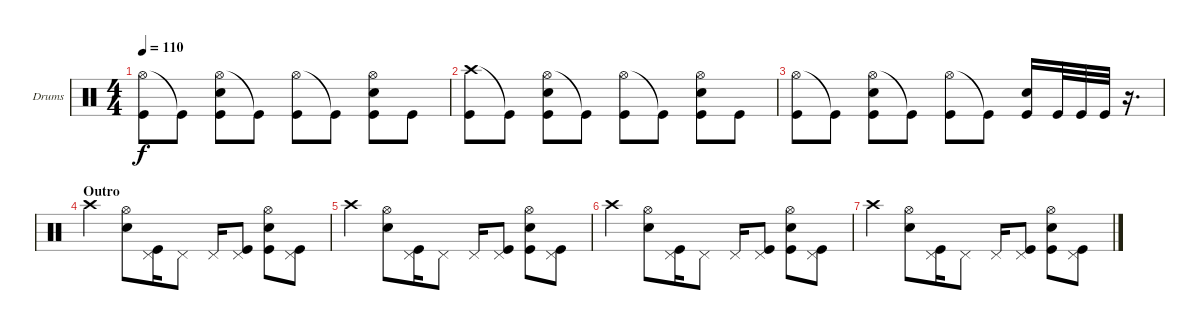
\bracketExtendMode groupsimilarinstruments
\firstSystemTrackNameOrientation horizontal
\otherSystemsTrackNameOrientation horizontal
\track ("Drumkit" "Drums") {instrument percussion}
\staff {score}
\articulation defaults
\ts (4 4)
\tempo 110
\clef neutral
\ks c
("Hi-Hat (open)" "Kick (hit)").8{dy f} "Kick (hit)"{t}.8 ("Hi-Hat (open)" "Snare (hit) 2" "Kick (hit)").8 "Kick (hit)"{t}.8 ("Hi-Hat (open)" "Kick (hit)").8 "Kick (hit)"{t}.8 ("Hi-Hat (open)" "Snare (hit) 2" "Kick (hit)").8 "Kick (hit)".8 |
("Crash high (hit)" "Kick (hit)").8 "Kick (hit)"{t}.8 ("Hi-Hat (open)" "Snare (hit) 2" "Kick (hit)").8 "Kick (hit)"{t}.8 ("Hi-Hat (open)" "Kick (hit)").8 "Kick (hit)"{t}.8 ("Hi-Hat (open)" "Snare (hit) 2" "Kick (hit)").8 "Kick (hit)".8 |
("Hi-Hat (open)" "Kick (hit)").8 "Kick (hit)"{t}.8 ("Hi-Hat (open)" "Snare (hit) 2" "Kick (hit)").8 "Kick (hit)"{t}.8 ("Hi-Hat (open)" "Kick (hit)").8 "Kick (hit)"{t}.8 ("Snare (hit) 2" "Kick (hit)").16 "Kick (hit)".32 "Kick (hit)".32 "Kick (hit)".32 r.16{d} |
\section ("" "Outro")
"Crash high (hit)".4 ("Hi-Hat (open)" "Snare (hit) 2").8 ("Pedal Hi-Hat (hit)" "Kick (hit)").16 "Pedal Hi-Hat (hit)".8 "Pedal Hi-Hat (hit)".16 ("Pedal Hi-Hat (hit)" "Kick (hit)").8 ("Hi-Hat (open)" "Snare (hit) 2" "Kick (hit)").8 ("Pedal Hi-Hat (hit)" "Kick (hit)").8 |
"Crash high (hit)".4 ("Hi-Hat (open)" "Snare (hit) 2").8 ("Pedal Hi-Hat (hit)" "Kick (hit)").16 "Pedal Hi-Hat (hit)".8 "Pedal Hi-Hat (hit)".16 ("Pedal Hi-Hat (hit)" "Kick (hit)").8 ("Hi-Hat (open)" "Snare (hit) 2" "Kick (hit)").8 ("Pedal Hi-Hat (hit)" "Kick (hit)").8 |
"Crash high (hit)".4 ("Hi-Hat (open)" "Snare (hit) 2").8 ("Pedal Hi-Hat (hit)" "Kick (hit)").16 "Pedal Hi-Hat (hit)".8 "Pedal Hi-Hat (hit)".16 ("Pedal Hi-Hat (hit)" "Kick (hit)").8 ("Hi-Hat (open)" "Snare (hit) 2" "Kick (hit)").8 ("Pedal Hi-Hat (hit)" "Kick (hit)").8 |
"Crash high (hit)".4 ("Hi-Hat (open)" "Snare (hit) 2").8 ("Pedal Hi-Hat (hit)" "Kick (hit)").16 "Pedal Hi-Hat (hit)".8 "Pedal Hi-Hat (hit)".16 ("Pedal Hi-Hat (hit)" "Kick (hit)").8 ("Hi-Hat (open)" "Snare (hit) 2" "Kick (hit)").8 ("Pedal Hi-Hat (hit)" "Kick (hit)").8
